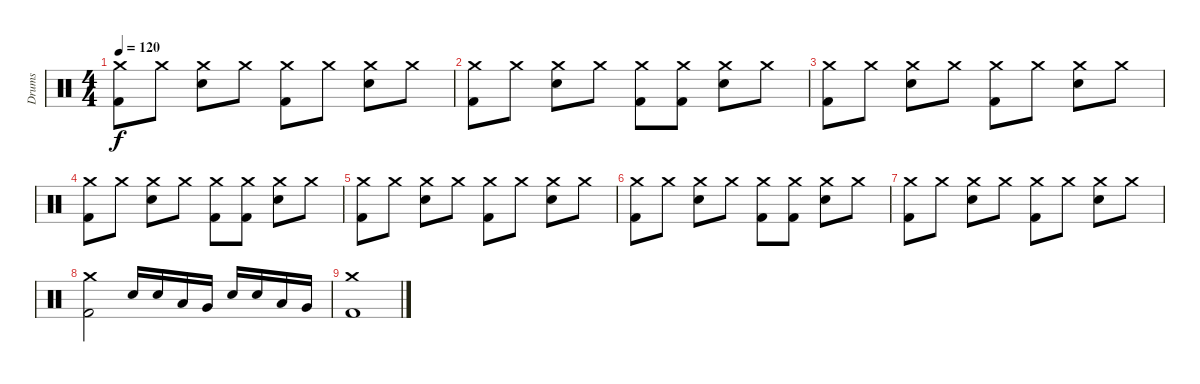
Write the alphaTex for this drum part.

\track ("Drums" "Drums") {instrument percussion}
\staff {score}
\articulation defaults
\ts (4 4)
\tempo 120
\clef neutral
\ks c
("Crash medium (hit)" "Kick (hit) 2").8{dy f} "Crash medium (hit)".8 ("Crash medium (hit)" "Electric Snare (hit)").8 "Crash medium (hit)".8 ("Crash medium (hit)" "Kick (hit) 2").8 "Crash medium (hit)".8 ("Crash medium (hit)" "Electric Snare (hit)").8 "Crash medium (hit)".8 |
("Crash medium (hit)" "Kick (hit) 2").8 "Crash medium (hit)".8 ("Crash medium (hit)" "Electric Snare (hit)").8 "Crash medium (hit)".8 ("Crash medium (hit)" "Kick (hit) 2").8 ("Crash medium (hit)" "Kick (hit) 2").8 ("Crash medium (hit)" "Electric Snare (hit)").8 "Crash medium (hit)".8 |
("Crash medium (hit)" "Kick (hit) 2").8 "Crash medium (hit)".8 ("Crash medium (hit)" "Electric Snare (hit)").8 "Crash medium (hit)".8 ("Crash medium (hit)" "Kick (hit) 2").8 "Crash medium (hit)".8 ("Crash medium (hit)" "Electric Snare (hit)").8 "Crash medium (hit)".8 |
("Crash medium (hit)" "Kick (hit) 2").8 "Crash medium (hit)".8 ("Crash medium (hit)" "Electric Snare (hit)").8 "Crash medium (hit)".8 ("Crash medium (hit)" "Kick (hit) 2").8 ("Crash medium (hit)" "Kick (hit) 2").8 ("Crash medium (hit)" "Electric Snare (hit)").8 "Crash medium (hit)".8 |
("Crash medium (hit)" "Kick (hit) 2").8 "Crash medium (hit)".8 ("Crash medium (hit)" "Electric Snare (hit)").8 "Crash medium (hit)".8 ("Crash medium (hit)" "Kick (hit) 2").8 "Crash medium (hit)".8 ("Crash medium (hit)" "Electric Snare (hit)").8 "Crash medium (hit)".8 |
("Crash medium (hit)" "Kick (hit) 2").8 "Crash medium (hit)".8 ("Crash medium (hit)" "Electric Snare (hit)").8 "Crash medium (hit)".8 ("Crash medium (hit)" "Kick (hit) 2").8 ("Crash medium (hit)" "Kick (hit) 2").8 ("Crash medium (hit)" "Electric Snare (hit)").8 "Crash medium (hit)".8 |
("Crash medium (hit)" "Kick (hit) 2").8 "Crash medium (hit)".8 ("Crash medium (hit)" "Electric Snare (hit)").8 "Crash medium (hit)".8 ("Crash medium (hit)" "Kick (hit) 2").8 "Crash medium (hit)".8 ("Crash medium (hit)" "Electric Snare (hit)").8 "Crash medium (hit)".8 |
("Crash medium (hit)" "Kick (hit) 2").2 "Electric Snare (hit)".16 "Electric Snare (hit)".16 "Low Tom (hit)".16 "Very Low Tom (hit)".16 "Electric Snare (hit)".16 "Electric Snare (hit)".16 "Low Tom (hit)".16 "Very Low Tom (hit)".16 |
("Crash medium (hit)" "Kick (hit) 2").1
